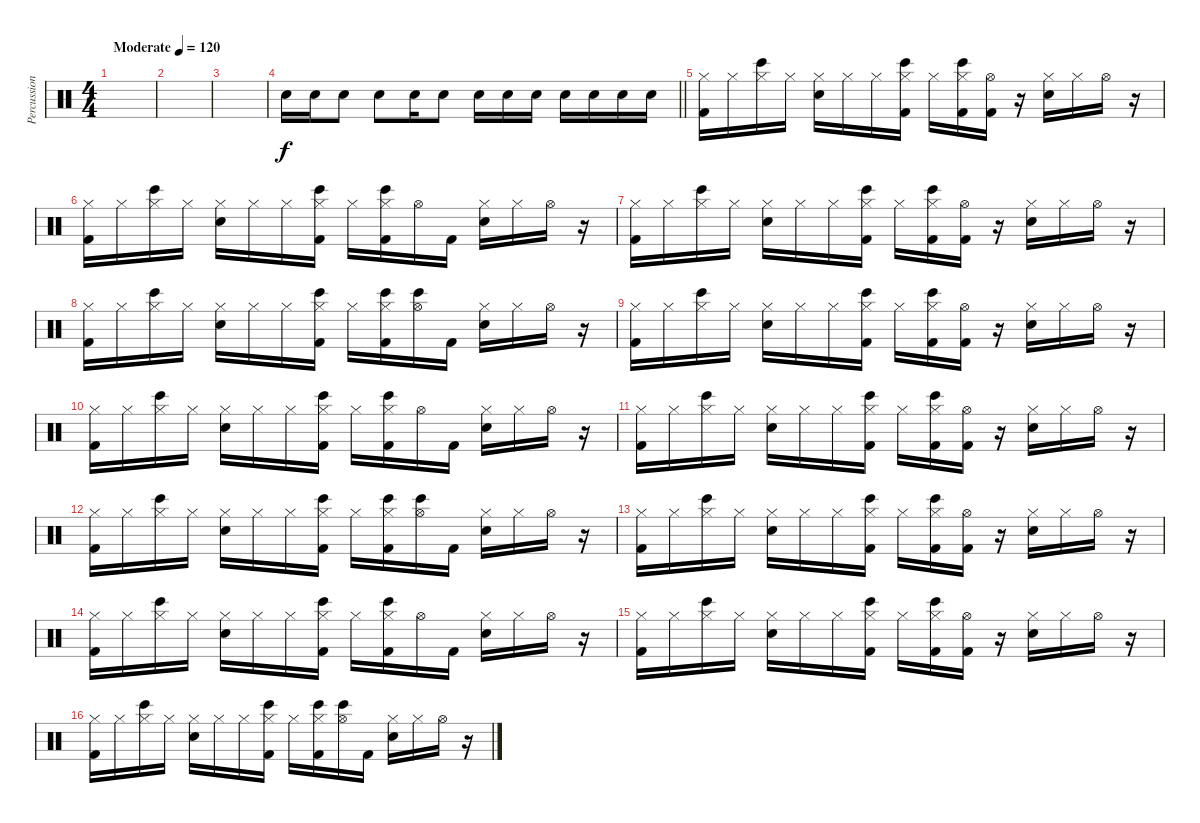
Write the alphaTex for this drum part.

\track ("Percussion" "Percussion") {instrument percussion}
\staff {score}
\articulation defaults
\ts (4 4)
\tempo (120 "Moderate")
\clef neutral
\ks c
|
|
|
\barLineRight lightlight "Snare (hit) 2".16 "Snare (hit) 2".16 "Snare (hit) 2".8 "Snare (hit) 2".8 "Snare (hit) 2".16 "Snare (hit) 2".8 "Snare (hit) 2".16 "Snare (hit) 2".16 "Snare (hit) 2".16 "Snare (hit) 2".16 "Snare (hit) 2".16 "Snare (hit) 2".16 "Snare (hit) 2".16
|
("Hi-Hat (closed)" "Kick (hit) 2").16 "Hi-Hat (closed)".16 ("Hi-Hat (closed)" "Bongo High (hit)").16 "Hi-Hat (closed)".16 ("Hi-Hat (closed)" "Snare (hit) 2").16 "Hi-Hat (closed)".16 "Hi-Hat (closed)".16 ("Hi-Hat (closed)" "Bongo High (hit)" "Kick (hit) 2").16 "Hi-Hat (closed)".16 ("Hi-Hat (closed)" "Bongo High (hit)" "Kick (hit) 2").16 ("Hi-Hat (open)" "Kick (hit) 2").16 r.16 ("Hi-Hat (closed)" "Snare (hit) 2").16 "Hi-Hat (closed)".16 "Hi-Hat (open)".16 r.16 |
("Hi-Hat (closed)" "Kick (hit) 2").16 "Hi-Hat (closed)".16 ("Hi-Hat (closed)" "Bongo High (hit)").16 "Hi-Hat (closed)".16 ("Hi-Hat (closed)" "Snare (hit) 2").16 "Hi-Hat (closed)".16 "Hi-Hat (closed)".16 ("Hi-Hat (closed)" "Bongo High (hit)" "Kick (hit) 2").16 "Hi-Hat (closed)".16 ("Hi-Hat (closed)" "Bongo High (hit)" "Kick (hit) 2").16 "Hi-Hat (open)".16 "Kick (hit) 2".16 ("Hi-Hat (closed)" "Snare (hit) 2").16 "Hi-Hat (closed)".16 "Hi-Hat (open)".16 r.16 |
("Hi-Hat (closed)" "Kick (hit) 2").16 "Hi-Hat (closed)".16 ("Hi-Hat (closed)" "Bongo High (hit)").16 "Hi-Hat (closed)".16 ("Hi-Hat (closed)" "Snare (hit) 2").16 "Hi-Hat (closed)".16 "Hi-Hat (closed)".16 ("Hi-Hat (closed)" "Bongo High (hit)" "Kick (hit) 2").16 "Hi-Hat (closed)".16 ("Hi-Hat (closed)" "Bongo High (hit)" "Kick (hit) 2").16 ("Hi-Hat (open)" "Kick (hit) 2").16 r.16 ("Hi-Hat (closed)" "Snare (hit) 2").16 "Hi-Hat (closed)".16 "Hi-Hat (open)".16 r.16 |
("Hi-Hat (closed)" "Kick (hit) 2").16 "Hi-Hat (closed)".16 ("Hi-Hat (closed)" "Bongo High (hit)").16 "Hi-Hat (closed)".16 ("Hi-Hat (closed)" "Snare (hit) 2").16 "Hi-Hat (closed)".16 "Hi-Hat (closed)".16 ("Hi-Hat (closed)" "Bongo High (hit)" "Kick (hit) 2").16 "Hi-Hat (closed)".16 ("Hi-Hat (closed)" "Bongo High (hit)" "Kick (hit) 2").16 ("Hi-Hat (open)" "Bongo High (hit)").16 "Kick (hit) 2".16 ("Hi-Hat (closed)" "Snare (hit) 2").16 "Hi-Hat (closed)".16 "Hi-Hat (open)".16 r.16 |
("Hi-Hat (closed)" "Kick (hit) 2").16 "Hi-Hat (closed)".16 ("Hi-Hat (closed)" "Bongo High (hit)").16 "Hi-Hat (closed)".16 ("Hi-Hat (closed)" "Snare (hit) 2").16 "Hi-Hat (closed)".16 "Hi-Hat (closed)".16 ("Hi-Hat (closed)" "Bongo High (hit)" "Kick (hit) 2").16 "Hi-Hat (closed)".16 ("Hi-Hat (closed)" "Bongo High (hit)" "Kick (hit) 2").16 ("Hi-Hat (open)" "Kick (hit) 2").16 r.16 ("Hi-Hat (closed)" "Snare (hit) 2").16 "Hi-Hat (closed)".16 "Hi-Hat (open)".16 r.16 |
("Hi-Hat (closed)" "Kick (hit) 2").16 "Hi-Hat (closed)".16 ("Hi-Hat (closed)" "Bongo High (hit)").16 "Hi-Hat (closed)".16 ("Hi-Hat (closed)" "Snare (hit) 2").16 "Hi-Hat (closed)".16 "Hi-Hat (closed)".16 ("Hi-Hat (closed)" "Bongo High (hit)" "Kick (hit) 2").16 "Hi-Hat (closed)".16 ("Hi-Hat (closed)" "Bongo High (hit)" "Kick (hit) 2").16 "Hi-Hat (open)".16 "Kick (hit) 2".16 ("Hi-Hat (closed)" "Snare (hit) 2").16 "Hi-Hat (closed)".16 "Hi-Hat (open)".16 r.16 |
("Hi-Hat (closed)" "Kick (hit) 2").16 "Hi-Hat (closed)".16 ("Hi-Hat (closed)" "Bongo High (hit)").16 "Hi-Hat (closed)".16 ("Hi-Hat (closed)" "Snare (hit) 2").16 "Hi-Hat (closed)".16 "Hi-Hat (closed)".16 ("Hi-Hat (closed)" "Bongo High (hit)" "Kick (hit) 2").16 "Hi-Hat (closed)".16 ("Hi-Hat (closed)" "Bongo High (hit)" "Kick (hit) 2").16 ("Hi-Hat (open)" "Kick (hit) 2").16 r.16 ("Hi-Hat (closed)" "Snare (hit) 2").16 "Hi-Hat (closed)".16 "Hi-Hat (open)".16 r.16 |
("Hi-Hat (closed)" "Kick (hit) 2").16 "Hi-Hat (closed)".16 ("Hi-Hat (closed)" "Bongo High (hit)").16 "Hi-Hat (closed)".16 ("Hi-Hat (closed)" "Snare (hit) 2").16 "Hi-Hat (closed)".16 "Hi-Hat (closed)".16 ("Hi-Hat (closed)" "Bongo High (hit)" "Kick (hit) 2").16 "Hi-Hat (closed)".16 ("Hi-Hat (closed)" "Bongo High (hit)" "Kick (hit) 2").16 ("Hi-Hat (open)" "Bongo High (hit)").16 "Kick (hit) 2".16 ("Hi-Hat (closed)" "Snare (hit) 2").16 "Hi-Hat (closed)".16 "Hi-Hat (open)".16 r.16 |
("Hi-Hat (closed)" "Kick (hit) 2").16 "Hi-Hat (closed)".16 ("Hi-Hat (closed)" "Bongo High (hit)").16 "Hi-Hat (closed)".16 ("Hi-Hat (closed)" "Snare (hit) 2").16 "Hi-Hat (closed)".16 "Hi-Hat (closed)".16 ("Hi-Hat (closed)" "Bongo High (hit)" "Kick (hit) 2").16 "Hi-Hat (closed)".16 ("Hi-Hat (closed)" "Bongo High (hit)" "Kick (hit) 2").16 ("Hi-Hat (open)" "Kick (hit) 2").16 r.16 ("Hi-Hat (closed)" "Snare (hit) 2").16 "Hi-Hat (closed)".16 "Hi-Hat (open)".16 r.16 |
("Hi-Hat (closed)" "Kick (hit) 2").16 "Hi-Hat (closed)".16 ("Hi-Hat (closed)" "Bongo High (hit)").16 "Hi-Hat (closed)".16 ("Hi-Hat (closed)" "Snare (hit) 2").16 "Hi-Hat (closed)".16 "Hi-Hat (closed)".16 ("Hi-Hat (closed)" "Bongo High (hit)" "Kick (hit) 2").16 "Hi-Hat (closed)".16 ("Hi-Hat (closed)" "Bongo High (hit)" "Kick (hit) 2").16 "Hi-Hat (open)".16 "Kick (hit) 2".16 ("Hi-Hat (closed)" "Snare (hit) 2").16 "Hi-Hat (closed)".16 "Hi-Hat (open)".16 r.16 |
("Hi-Hat (closed)" "Kick (hit) 2").16 "Hi-Hat (closed)".16 ("Hi-Hat (closed)" "Bongo High (hit)").16 "Hi-Hat (closed)".16 ("Hi-Hat (closed)" "Snare (hit) 2").16 "Hi-Hat (closed)".16 "Hi-Hat (closed)".16 ("Hi-Hat (closed)" "Bongo High (hit)" "Kick (hit) 2").16 "Hi-Hat (closed)".16 ("Hi-Hat (closed)" "Bongo High (hit)" "Kick (hit) 2").16 ("Hi-Hat (open)" "Kick (hit) 2").16 r.16 ("Hi-Hat (closed)" "Snare (hit) 2").16 "Hi-Hat (closed)".16 "Hi-Hat (open)".16 r.16 |
("Hi-Hat (closed)" "Kick (hit) 2").16 "Hi-Hat (closed)".16 ("Hi-Hat (closed)" "Bongo High (hit)").16 "Hi-Hat (closed)".16 ("Hi-Hat (closed)" "Snare (hit) 2").16 "Hi-Hat (closed)".16 "Hi-Hat (closed)".16 ("Hi-Hat (closed)" "Bongo High (hit)" "Kick (hit) 2").16 "Hi-Hat (closed)".16 ("Hi-Hat (closed)" "Bongo High (hit)" "Kick (hit) 2").16 ("Hi-Hat (open)" "Bongo High (hit)").16 "Kick (hit) 2".16 ("Hi-Hat (closed)" "Snare (hit) 2").16 "Hi-Hat (closed)".16 "Hi-Hat (open)".16 r.16
